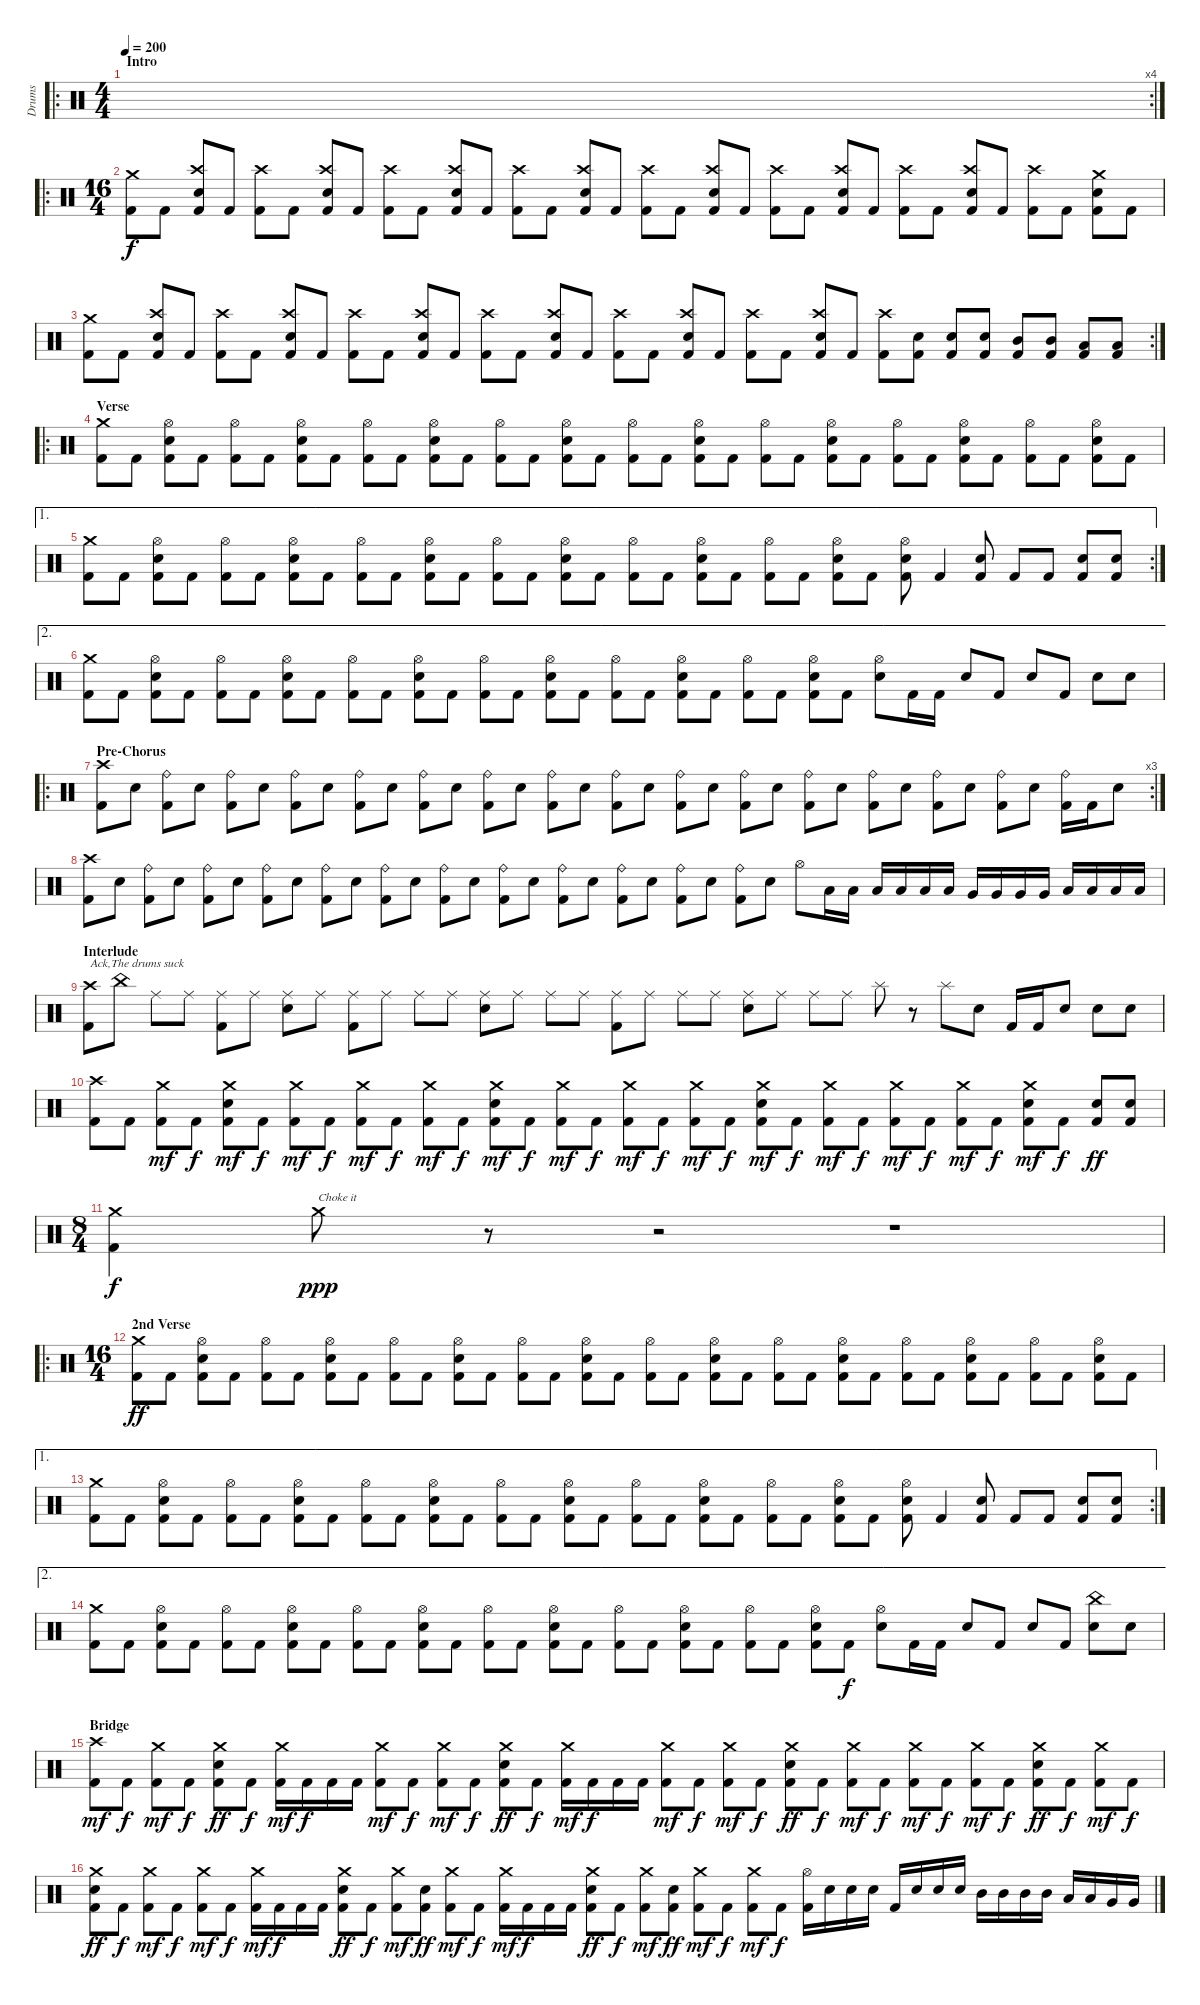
\track ("Drums" "Drums") {instrument percussion}
\staff {score}
\articulation defaults
\ro
\rc 4
\ts (4 4)
\section ("" "Intro")
\tempo 200
\clef neutral
\ks c
|
\ro
\ts (16 4)
("Crash medium (hit)" "Kick (hit) 2").8 "Kick (hit) 2".8 ("Crash high (hit)" "Electric Snare (hit)" "Kick (hit) 2").8 "Kick (hit) 2".8 ("Crash high (hit)" "Kick (hit) 2").8 "Kick (hit) 2".8 ("Crash high (hit)" "Electric Snare (hit)" "Kick (hit) 2").8 "Kick (hit) 2".8 ("Crash high (hit)" "Kick (hit) 2").8 "Kick (hit) 2".8 ("Crash high (hit)" "Electric Snare (hit)" "Kick (hit) 2").8 "Kick (hit) 2".8 ("Crash high (hit)" "Kick (hit) 2").8 "Kick (hit) 2".8 ("Crash high (hit)" "Electric Snare (hit)" "Kick (hit) 2").8 "Kick (hit) 2".8 ("Crash high (hit)" "Kick (hit) 2").8 "Kick (hit) 2".8 ("Crash high (hit)" "Electric Snare (hit)" "Kick (hit) 2").8 "Kick (hit) 2".8 ("Crash high (hit)" "Kick (hit) 2").8 "Kick (hit) 2".8 ("Crash high (hit)" "Electric Snare (hit)" "Kick (hit) 2").8 "Kick (hit) 2".8 ("Crash high (hit)" "Kick (hit) 2").8 "Kick (hit) 2".8 ("Crash high (hit)" "Electric Snare (hit)" "Kick (hit) 2").8 "Kick (hit) 2".8 ("Crash high (hit)" "Kick (hit) 2").8 "Kick (hit) 2".8 ("Crash medium (hit)" "Electric Snare (hit)" "Kick (hit) 2").8 "Kick (hit) 2".8 |
\rc 2
("Crash medium (hit)" "Kick (hit) 2").8 "Kick (hit) 2".8 ("Crash high (hit)" "Electric Snare (hit)" "Kick (hit) 2").8 "Kick (hit) 2".8 ("Crash high (hit)" "Kick (hit) 2").8 "Kick (hit) 2".8 ("Crash high (hit)" "Electric Snare (hit)" "Kick (hit) 2").8 "Kick (hit) 2".8 ("Crash high (hit)" "Kick (hit) 2").8 "Kick (hit) 2".8 ("Crash high (hit)" "Electric Snare (hit)" "Kick (hit) 2").8 "Kick (hit) 2".8 ("Crash high (hit)" "Kick (hit) 2").8 "Kick (hit) 2".8 ("Crash high (hit)" "Electric Snare (hit)" "Kick (hit) 2").8 "Kick (hit) 2".8 ("Crash high (hit)" "Kick (hit) 2").8 "Kick (hit) 2".8 ("Crash high (hit)" "Electric Snare (hit)" "Kick (hit) 2").8 "Kick (hit) 2".8 ("Crash high (hit)" "Kick (hit) 2").8 "Kick (hit) 2".8 ("Crash high (hit)" "Electric Snare (hit)" "Kick (hit) 2").8 "Kick (hit) 2".8 ("Crash high (hit)" "Kick (hit) 2").8 ("Electric Snare (hit)" "Kick (hit) 2").8 ("Electric Snare (hit)" "Kick (hit) 2").8 ("Electric Snare (hit)" "Kick (hit) 2").8 ("Mid Tom (hit)" "Kick (hit) 2").8 ("Mid Tom (hit)" "Kick (hit) 2").8 ("Low Tom (hit)" "Kick (hit) 2").8 ("Low Tom (hit)" "Kick (hit) 2").8 |
\ro
\section ("" "Verse")
("Crash medium (hit)" "Kick (hit) 2").8 "Kick (hit) 2".8 ("Hi-Hat (open)" "Electric Snare (hit)" "Kick (hit) 2").8 "Kick (hit) 2".8 ("Hi-Hat (open)" "Kick (hit) 2").8 "Kick (hit) 2".8 ("Hi-Hat (open)" "Electric Snare (hit)" "Kick (hit) 2").8 "Kick (hit) 2".8 ("Hi-Hat (open)" "Kick (hit) 2").8 "Kick (hit) 2".8 ("Hi-Hat (open)" "Electric Snare (hit)" "Kick (hit) 2").8 "Kick (hit) 2".8 ("Hi-Hat (open)" "Kick (hit) 2").8 "Kick (hit) 2".8 ("Hi-Hat (open)" "Electric Snare (hit)" "Kick (hit) 2").8 "Kick (hit) 2".8 ("Hi-Hat (open)" "Kick (hit) 2").8 "Kick (hit) 2".8 ("Hi-Hat (open)" "Electric Snare (hit)" "Kick (hit) 2").8 "Kick (hit) 2".8 ("Hi-Hat (open)" "Kick (hit) 2").8 "Kick (hit) 2".8 ("Hi-Hat (open)" "Electric Snare (hit)" "Kick (hit) 2").8 "Kick (hit) 2".8 ("Hi-Hat (open)" "Kick (hit) 2").8 "Kick (hit) 2".8 ("Hi-Hat (open)" "Electric Snare (hit)" "Kick (hit) 2").8 "Kick (hit) 2".8 ("Hi-Hat (open)" "Kick (hit) 2").8 "Kick (hit) 2".8 ("Hi-Hat (open)" "Electric Snare (hit)" "Kick (hit) 2").8 "Kick (hit) 2".8 |
\ae 1
\rc 2
("Crash medium (hit)" "Kick (hit) 2").8 "Kick (hit) 2".8 ("Hi-Hat (open)" "Electric Snare (hit)" "Kick (hit) 2").8 "Kick (hit) 2".8 ("Hi-Hat (open)" "Kick (hit) 2").8 "Kick (hit) 2".8 ("Hi-Hat (open)" "Electric Snare (hit)" "Kick (hit) 2").8 "Kick (hit) 2".8 ("Hi-Hat (open)" "Kick (hit) 2").8 "Kick (hit) 2".8 ("Hi-Hat (open)" "Electric Snare (hit)" "Kick (hit) 2").8 "Kick (hit) 2".8 ("Hi-Hat (open)" "Kick (hit) 2").8 "Kick (hit) 2".8 ("Hi-Hat (open)" "Electric Snare (hit)" "Kick (hit) 2").8 "Kick (hit) 2".8 ("Hi-Hat (open)" "Kick (hit) 2").8 "Kick (hit) 2".8 ("Hi-Hat (open)" "Electric Snare (hit)" "Kick (hit) 2").8 "Kick (hit) 2".8 ("Hi-Hat (open)" "Kick (hit) 2").8 "Kick (hit) 2".8 ("Hi-Hat (open)" "Electric Snare (hit)" "Kick (hit) 2").8 "Kick (hit) 2".8 ("Hi-Hat (open)" "Electric Snare (hit)" "Kick (hit) 2").8 "Kick (hit) 2".4 ("Electric Snare (hit)" "Kick (hit) 2").8 "Kick (hit) 2".8 "Kick (hit) 2".8 ("Electric Snare (hit)" "Kick (hit) 2").8 ("Electric Snare (hit)" "Kick (hit) 2").8 |
\ae 2
("Crash medium (hit)" "Kick (hit) 2").8 "Kick (hit) 2".8 ("Hi-Hat (open)" "Electric Snare (hit)" "Kick (hit) 2").8 "Kick (hit) 2".8 ("Hi-Hat (open)" "Kick (hit) 2").8 "Kick (hit) 2".8 ("Hi-Hat (open)" "Electric Snare (hit)" "Kick (hit) 2").8 "Kick (hit) 2".8 ("Hi-Hat (open)" "Kick (hit) 2").8 "Kick (hit) 2".8 ("Hi-Hat (open)" "Electric Snare (hit)" "Kick (hit) 2").8 "Kick (hit) 2".8 ("Hi-Hat (open)" "Kick (hit) 2").8 "Kick (hit) 2".8 ("Hi-Hat (open)" "Electric Snare (hit)" "Kick (hit) 2").8 "Kick (hit) 2".8 ("Hi-Hat (open)" "Kick (hit) 2").8 "Kick (hit) 2".8 ("Hi-Hat (open)" "Electric Snare (hit)" "Kick (hit) 2").8 "Kick (hit) 2".8 ("Hi-Hat (open)" "Kick (hit) 2").8 "Kick (hit) 2".8 ("Hi-Hat (open)" "Electric Snare (hit)" "Kick (hit) 2").8 "Kick (hit) 2".8{dy f} ("Hi-Hat (open)" "Electric Snare (hit)").8 "Kick (hit) 2".16 "Kick (hit) 2".16 "Electric Snare (hit)".8 "Kick (hit) 2".8 "Electric Snare (hit)".8 "Kick (hit) 2".8 "Electric Snare (hit)".8 "Electric Snare (hit)".8 |
\ro
\rc 3
\section ("" "Pre-Chorus")
("Crash high (hit)" "Kick (hit) 2").8 "Electric Snare (hit)".8 ("Ride (bell)" "Kick (hit) 2").8 "Electric Snare (hit)".8 ("Ride (bell)" "Kick (hit) 2").8 "Electric Snare (hit)".8 ("Ride (bell)" "Kick (hit) 2").8 "Electric Snare (hit)".8 ("Ride (bell)" "Kick (hit) 2").8 "Electric Snare (hit)".8 ("Ride (bell)" "Kick (hit) 2").8 "Electric Snare (hit)".8 ("Ride (bell)" "Kick (hit) 2").8 "Electric Snare (hit)".8 ("Ride (bell)" "Kick (hit) 2").8 "Electric Snare (hit)".8 ("Ride (bell)" "Kick (hit) 2").8 "Electric Snare (hit)".8 ("Ride (bell)" "Kick (hit) 2").8 "Electric Snare (hit)".8 ("Ride (bell)" "Kick (hit) 2").8 "Electric Snare (hit)".8 ("Ride (bell)" "Kick (hit) 2").8 "Electric Snare (hit)".8 ("Ride (bell)" "Kick (hit) 2").8 "Electric Snare (hit)".8 ("Ride (bell)" "Kick (hit) 2").8 "Electric Snare (hit)".8 ("Ride (bell)" "Kick (hit) 2").8 "Electric Snare (hit)".8 ("Ride (bell)" "Kick (hit) 2").16 "Kick (hit) 2".16 "Electric Snare (hit)".8 |
("Crash high (hit)" "Kick (hit) 2").8 "Electric Snare (hit)".8 ("Ride (bell)" "Kick (hit) 2").8 "Electric Snare (hit)".8 ("Ride (bell)" "Kick (hit) 2").8 "Electric Snare (hit)".8 ("Ride (bell)" "Kick (hit) 2").8 "Electric Snare (hit)".8 ("Ride (bell)" "Kick (hit) 2").8 "Electric Snare (hit)".8 ("Ride (bell)" "Kick (hit) 2").8 "Electric Snare (hit)".8 ("Ride (bell)" "Kick (hit) 2").8 "Electric Snare (hit)".8 ("Ride (bell)" "Kick (hit) 2").8 "Electric Snare (hit)".8 ("Ride (bell)" "Kick (hit) 2").8 "Electric Snare (hit)".8 ("Ride (bell)" "Kick (hit) 2").8 "Electric Snare (hit)".8 ("Ride (bell)" "Kick (hit) 2").8 "Electric Snare (hit)".8 ("Ride (bell)" "Kick (hit) 2").8 "Electric Snare (hit)".8 "Hi-Hat (open)".8 "Low Tom (hit)".16 "Low Tom (hit)".16 "Low Tom (hit)".16 "Low Tom (hit)".16 "Low Tom (hit)".16 "Low Tom (hit)".16 "Very Low Tom (hit)".16 "Very Low Tom (hit)".16 "Very Low Tom (hit)".16 "Very Low Tom (hit)".16 "Low Floor Tom (hit)".16 "Low Floor Tom (hit)".16 "Low Floor Tom (hit)".16 "Low Floor Tom (hit)".16 |
\section ("" "Interlude")
("Crash high (hit)" "Kick (hit) 2").8{txt "Ack,The drums suck"} "China (hit)".8 "Ride (middle)".8 "Ride (middle)".8 ("Ride (middle)" "Kick (hit) 2").8 "Ride (middle)".8 ("Ride (middle)" "Electric Snare (hit)").8 "Ride (middle)".8 ("Ride (middle)" "Kick (hit) 2").8 "Ride (middle)".8 "Ride (middle)".8 "Ride (middle)".8 ("Ride (middle)" "Electric Snare (hit)").8 "Ride (middle)".8 "Ride (middle)".8 "Ride (middle)".8 ("Ride (middle)" "Kick (hit) 2").8 "Ride (middle)".8 "Ride (middle)".8 "Ride (middle)".8 ("Ride (middle)" "Electric Snare (hit)").8 "Ride (middle)".8 "Ride (middle)".8 "Ride (middle)".8 "Splash (hit)".8 r.8 "Splash (hit)".8 "Electric Snare (hit)".8 "Kick (hit) 2".16 "Kick (hit) 2".16 "Electric Snare (hit)".8 "Electric Snare (hit)".8 "Electric Snare (hit)".8 |
("Crash high (hit)" "Kick (hit) 2").8 "Kick (hit) 2".8 ("Crash medium (hit)" "Kick (hit) 2").8{dy mf} "Kick (hit) 2".8{dy f} ("Crash medium (hit)" "Electric Snare (hit)" "Kick (hit) 2").8{dy mf} "Kick (hit) 2".8{dy f} ("Crash medium (hit)" "Kick (hit) 2").8{dy mf} "Kick (hit) 2".8{dy f} ("Crash medium (hit)" "Kick (hit) 2").8{dy mf} "Kick (hit) 2".8{dy f} ("Crash medium (hit)" "Kick (hit) 2").8{dy mf} "Kick (hit) 2".8{dy f} ("Crash medium (hit)" "Electric Snare (hit)" "Kick (hit) 2").8{dy mf} "Kick (hit) 2".8{dy f} ("Crash medium (hit)" "Kick (hit) 2").8{dy mf} "Kick (hit) 2".8{dy f} ("Crash medium (hit)" "Kick (hit) 2").8{dy mf} "Kick (hit) 2".8{dy f} ("Crash medium (hit)" "Kick (hit) 2").8{dy mf} "Kick (hit) 2".8{dy f} ("Crash medium (hit)" "Electric Snare (hit)" "Kick (hit) 2").8{dy mf} "Kick (hit) 2".8{dy f} ("Crash medium (hit)" "Kick (hit) 2").8{dy mf} "Kick (hit) 2".8{dy f} ("Crash medium (hit)" "Kick (hit) 2").8{dy mf} "Kick (hit) 2".8{dy f} ("Crash medium (hit)" "Kick (hit) 2").8{dy mf} "Kick (hit) 2".8{dy f} ("Crash medium (hit)" "Electric Snare (hit)" "Kick (hit) 2").8{dy mf} "Kick (hit) 2".8{dy f} ("Electric Snare (hit)" "Kick (hit) 2").8{dy ff} ("Electric Snare (hit)" "Kick (hit) 2").8 |
\ts (8 4)
("Crash medium (hit)" "Kick (hit) 2").4{dy f} "Crash medium (hit)".8{txt "Choke it" dy ppp} r.8 r.2 r.1 |
\ro
\ts (16 4)
\section ("" "2nd Verse")
("Crash medium (hit)" "Kick (hit) 2").8{dy ff} "Kick (hit) 2".8 ("Hi-Hat (open)" "Electric Snare (hit)" "Kick (hit) 2").8 "Kick (hit) 2".8 ("Hi-Hat (open)" "Kick (hit) 2").8 "Kick (hit) 2".8 ("Hi-Hat (open)" "Electric Snare (hit)" "Kick (hit) 2").8 "Kick (hit) 2".8 ("Hi-Hat (open)" "Kick (hit) 2").8 "Kick (hit) 2".8 ("Hi-Hat (open)" "Electric Snare (hit)" "Kick (hit) 2").8 "Kick (hit) 2".8 ("Hi-Hat (open)" "Kick (hit) 2").8 "Kick (hit) 2".8 ("Hi-Hat (open)" "Electric Snare (hit)" "Kick (hit) 2").8 "Kick (hit) 2".8 ("Hi-Hat (open)" "Kick (hit) 2").8 "Kick (hit) 2".8 ("Hi-Hat (open)" "Electric Snare (hit)" "Kick (hit) 2").8 "Kick (hit) 2".8 ("Hi-Hat (open)" "Kick (hit) 2").8 "Kick (hit) 2".8 ("Hi-Hat (open)" "Electric Snare (hit)" "Kick (hit) 2").8 "Kick (hit) 2".8 ("Hi-Hat (open)" "Kick (hit) 2").8 "Kick (hit) 2".8 ("Hi-Hat (open)" "Electric Snare (hit)" "Kick (hit) 2").8 "Kick (hit) 2".8 ("Hi-Hat (open)" "Kick (hit) 2").8 "Kick (hit) 2".8 ("Hi-Hat (open)" "Electric Snare (hit)" "Kick (hit) 2").8 "Kick (hit) 2".8 |
\ae 1
\rc 2
("Crash medium (hit)" "Kick (hit) 2").8 "Kick (hit) 2".8 ("Hi-Hat (open)" "Electric Snare (hit)" "Kick (hit) 2").8 "Kick (hit) 2".8 ("Hi-Hat (open)" "Kick (hit) 2").8 "Kick (hit) 2".8 ("Hi-Hat (open)" "Electric Snare (hit)" "Kick (hit) 2").8 "Kick (hit) 2".8 ("Hi-Hat (open)" "Kick (hit) 2").8 "Kick (hit) 2".8 ("Hi-Hat (open)" "Electric Snare (hit)" "Kick (hit) 2").8 "Kick (hit) 2".8 ("Hi-Hat (open)" "Kick (hit) 2").8 "Kick (hit) 2".8 ("Hi-Hat (open)" "Electric Snare (hit)" "Kick (hit) 2").8 "Kick (hit) 2".8 ("Hi-Hat (open)" "Kick (hit) 2").8 "Kick (hit) 2".8 ("Hi-Hat (open)" "Electric Snare (hit)" "Kick (hit) 2").8 "Kick (hit) 2".8 ("Hi-Hat (open)" "Kick (hit) 2").8 "Kick (hit) 2".8 ("Hi-Hat (open)" "Electric Snare (hit)" "Kick (hit) 2").8 "Kick (hit) 2".8 ("Hi-Hat (open)" "Electric Snare (hit)" "Kick (hit) 2").8 "Kick (hit) 2".4 ("Electric Snare (hit)" "Kick (hit) 2").8 "Kick (hit) 2".8 "Kick (hit) 2".8 ("Electric Snare (hit)" "Kick (hit) 2").8 ("Electric Snare (hit)" "Kick (hit) 2").8 |
\ae 2
("Crash medium (hit)" "Kick (hit) 2").8 "Kick (hit) 2".8 ("Hi-Hat (open)" "Electric Snare (hit)" "Kick (hit) 2").8 "Kick (hit) 2".8 ("Hi-Hat (open)" "Kick (hit) 2").8 "Kick (hit) 2".8 ("Hi-Hat (open)" "Electric Snare (hit)" "Kick (hit) 2").8 "Kick (hit) 2".8 ("Hi-Hat (open)" "Kick (hit) 2").8 "Kick (hit) 2".8 ("Hi-Hat (open)" "Electric Snare (hit)" "Kick (hit) 2").8 "Kick (hit) 2".8 ("Hi-Hat (open)" "Kick (hit) 2").8 "Kick (hit) 2".8 ("Hi-Hat (open)" "Electric Snare (hit)" "Kick (hit) 2").8 "Kick (hit) 2".8 ("Hi-Hat (open)" "Kick (hit) 2").8 "Kick (hit) 2".8 ("Hi-Hat (open)" "Electric Snare (hit)" "Kick (hit) 2").8 "Kick (hit) 2".8 ("Hi-Hat (open)" "Kick (hit) 2").8 "Kick (hit) 2".8 ("Hi-Hat (open)" "Electric Snare (hit)" "Kick (hit) 2").8 "Kick (hit) 2".8{dy f} ("Hi-Hat (open)" "Electric Snare (hit)").8 "Kick (hit) 2".16 "Kick (hit) 2".16 "Electric Snare (hit)".8 "Kick (hit) 2".8 "Electric Snare (hit)".8 "Kick (hit) 2".8 ("China (hit)" "Electric Snare (hit)").8 "Electric Snare (hit)".8 |
\section ("" "Bridge")
("Crash high (hit)" "Kick (hit) 2").8{dy mf} "Kick (hit) 2".8{dy f} ("Crash medium (hit)" "Kick (hit) 2").8{dy mf} "Kick (hit) 2".8{dy f} ("Crash medium (hit)" "Electric Snare (hit)" "Kick (hit) 2").8{dy ff} "Kick (hit) 2".8{dy f} ("Crash medium (hit)" "Kick (hit) 2").16{dy mf} "Kick (hit) 2".16{dy f} "Kick (hit) 2".16 "Kick (hit) 2".16 ("Crash medium (hit)" "Kick (hit) 2").8{dy mf} "Kick (hit) 2".8{dy f} ("Crash medium (hit)" "Kick (hit) 2").8{dy mf} "Kick (hit) 2".8{dy f} ("Crash medium (hit)" "Electric Snare (hit)" "Kick (hit) 2").8{dy ff} "Kick (hit) 2".8{dy f} ("Crash medium (hit)" "Kick (hit) 2").16{dy mf} "Kick (hit) 2".16{dy f} "Kick (hit) 2".16 "Kick (hit) 2".16 ("Crash medium (hit)" "Kick (hit) 2").8{dy mf} "Kick (hit) 2".8{dy f} ("Crash medium (hit)" "Kick (hit) 2").8{dy mf} "Kick (hit) 2".8{dy f} ("Crash medium (hit)" "Electric Snare (hit)" "Kick (hit) 2").8{dy ff} "Kick (hit) 2".8{dy f} ("Crash medium (hit)" "Kick (hit) 2").8{dy mf} "Kick (hit) 2".8{dy f} ("Crash medium (hit)" "Kick (hit) 2").8{dy mf} "Kick (hit) 2".8{dy f} ("Crash medium (hit)" "Kick (hit) 2").8{dy mf} "Kick (hit) 2".8{dy f} ("Crash medium (hit)" "Electric Snare (hit)" "Kick (hit) 2").8{dy ff} "Kick (hit) 2".8{dy f} ("Crash medium (hit)" "Kick (hit) 2").8{dy mf} "Kick (hit) 2".8{dy f} |
("Crash medium (hit)" "Electric Snare (hit)" "Kick (hit) 2").8{dy ff} "Kick (hit) 2".8{dy f} ("Crash medium (hit)" "Kick (hit) 2").8{dy mf} "Kick (hit) 2".8{dy f} ("Crash medium (hit)" "Kick (hit) 2").8{dy mf} "Kick (hit) 2".8{dy f} ("Crash medium (hit)" "Kick (hit) 2").16{dy mf} "Kick (hit) 2".16{dy f} "Kick (hit) 2".16 "Kick (hit) 2".16 ("Crash medium (hit)" "Electric Snare (hit)" "Kick (hit) 2").8{dy ff} "Kick (hit) 2".8{dy f} ("Crash medium (hit)" "Kick (hit) 2").8{dy mf} ("Electric Snare (hit)" "Kick (hit) 2").8{dy ff} ("Crash medium (hit)" "Kick (hit) 2").8{dy mf} "Kick (hit) 2".8{dy f} ("Crash medium (hit)" "Kick (hit) 2").16{dy mf} "Kick (hit) 2".16{dy f} "Kick (hit) 2".16 "Kick (hit) 2".16 ("Crash medium (hit)" "Electric Snare (hit)" "Kick (hit) 2").8{dy ff} "Kick (hit) 2".8{dy f} ("Crash medium (hit)" "Kick (hit) 2").8{dy mf} ("Electric Snare (hit)" "Kick (hit) 2").8{dy ff} ("Crash medium (hit)" "Kick (hit) 2").8{dy mf} "Kick (hit) 2".8{dy f} ("Crash medium (hit)" "Kick (hit) 2").8{dy mf} "Kick (hit) 2".8{dy f} ("Hi-Hat (open)" "Kick (hit) 2").16 "Electric Snare (hit)".16 "Electric Snare (hit)".16 "Electric Snare (hit)".16 "Kick (hit) 2".16 "Electric Snare (hit)".16 "Electric Snare (hit)".16 "Electric Snare (hit)".16 "Mid Tom (hit)".16 "Mid Tom (hit)".16 "Mid Tom (hit)".16 "Mid Tom (hit)".16 "Low Tom (hit)".16 "Low Tom (hit)".16 "Very Low Tom (hit)".16 "Very Low Tom (hit)".16
